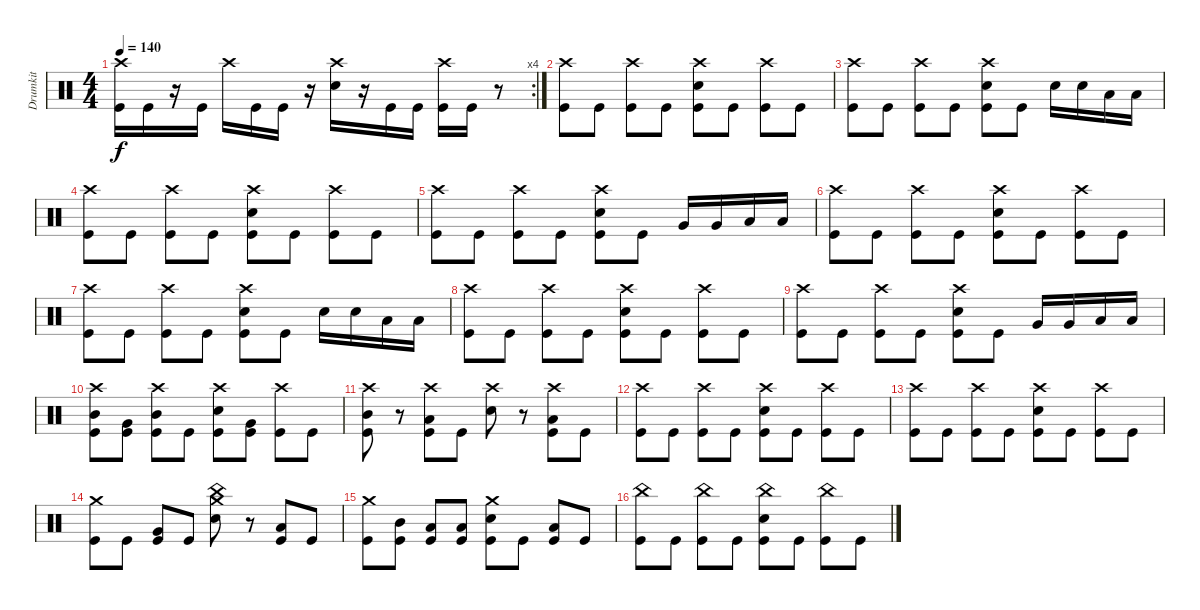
\track ("Drumkit" "Drumkit") {instrument percussion}
\staff {score}
\articulation defaults
\rc 4
\ts (4 4)
\tempo 140
\clef neutral
\ks c
("Crash high (hit)" "Kick (hit)").16{dy f} "Kick (hit)".16 r.16 "Kick (hit)".16 "Crash high (hit)".16 "Kick (hit)".16 "Kick (hit)".16 r.16 ("Crash high (hit)" "Snare (hit) 2").16 r.16 "Kick (hit)".16 "Kick (hit)".16 ("Crash high (hit)" "Kick (hit)").16 "Kick (hit)".16 r.8 |
("Crash high (hit)" "Kick (hit)").8 "Kick (hit)".8 ("Crash high (hit)" "Kick (hit)").8 "Kick (hit)".8 ("Crash high (hit)" "Snare (hit) 2" "Kick (hit)").8 "Kick (hit)".8 ("Crash high (hit)" "Kick (hit)").8 "Kick (hit)".8 |
("Crash high (hit)" "Kick (hit)").8 "Kick (hit)".8 ("Crash high (hit)" "Kick (hit)").8 "Kick (hit)".8 ("Crash high (hit)" "Snare (hit) 2" "Kick (hit)").8 "Kick (hit)".8 "Snare (hit) 2".16 "Snare (hit) 2".16 "Low Floor Tom (hit)".16 "Low Floor Tom (hit)".16 |
("Crash high (hit)" "Kick (hit)").8 "Kick (hit)".8 ("Crash high (hit)" "Kick (hit)").8 "Kick (hit)".8 ("Crash high (hit)" "Snare (hit) 2" "Kick (hit)").8 "Kick (hit)".8 ("Crash high (hit)" "Kick (hit)").8 "Kick (hit)".8 |
("Crash high (hit)" "Kick (hit)").8 "Kick (hit)".8 ("Crash high (hit)" "Kick (hit)").8 "Kick (hit)".8 ("Crash high (hit)" "Snare (hit) 2" "Kick (hit)").8 "Kick (hit)".8 "Very Low Tom (hit)".16 "Very Low Tom (hit)".16 "Low Floor Tom (hit)".16 "Low Floor Tom (hit)".16 |
("Crash high (hit)" "Kick (hit)").8 "Kick (hit)".8 ("Crash high (hit)" "Kick (hit)").8 "Kick (hit)".8 ("Crash high (hit)" "Snare (hit) 2" "Kick (hit)").8 "Kick (hit)".8 ("Crash high (hit)" "Kick (hit)").8 "Kick (hit)".8 |
("Crash high (hit)" "Kick (hit)").8 "Kick (hit)".8 ("Crash high (hit)" "Kick (hit)").8 "Kick (hit)".8 ("Crash high (hit)" "Snare (hit) 2" "Kick (hit)").8 "Kick (hit)".8 "Snare (hit) 2".16 "Snare (hit) 2".16 "Low Floor Tom (hit)".16 "Low Floor Tom (hit)".16 |
("Crash high (hit)" "Kick (hit)").8 "Kick (hit)".8 ("Crash high (hit)" "Kick (hit)").8 "Kick (hit)".8 ("Crash high (hit)" "Snare (hit) 2" "Kick (hit)").8 "Kick (hit)".8 ("Crash high (hit)" "Kick (hit)").8 "Kick (hit)".8 |
("Crash high (hit)" "Kick (hit)").8 "Kick (hit)".8 ("Crash high (hit)" "Kick (hit)").8 "Kick (hit)".8 ("Crash high (hit)" "Snare (hit) 2" "Kick (hit)").8 "Kick (hit)".8 "Very Low Tom (hit)".16 "Very Low Tom (hit)".16 "Low Floor Tom (hit)".16 "Low Floor Tom (hit)".16 |
("Crash high (hit)" "Mid Tom (hit)" "Kick (hit)").8 ("Very Low Tom (hit)" "Kick (hit)").8 ("Crash high (hit)" "Mid Tom (hit)" "Kick (hit)").8 "Kick (hit)".8 ("Crash high (hit)" "Snare (hit) 2" "Kick (hit)").8 ("Very Low Tom (hit)" "Kick (hit)").8 ("Crash high (hit)" "Kick (hit)").8 "Kick (hit)".8 |
("Crash high (hit)" "Mid Tom (hit)" "Kick (hit)").8 r.8 ("Crash high (hit)" "Low Tom (hit)" "Kick (hit)").8 "Kick (hit)".8 ("Crash high (hit)" "Snare (hit) 2").8 r.8 ("Crash high (hit)" "Low Floor Tom (hit)" "Kick (hit)").8 "Kick (hit)".8 |
("Crash high (hit)" "Kick (hit)").8 "Kick (hit)".8 ("Crash high (hit)" "Kick (hit)").8 "Kick (hit)".8 ("Crash high (hit)" "Snare (hit) 2" "Kick (hit)").8 "Kick (hit)".8 ("Crash high (hit)" "Kick (hit)").8 "Kick (hit)".8 |
("Crash high (hit)" "Kick (hit)").8 "Kick (hit)".8 ("Crash high (hit)" "Kick (hit)").8 "Kick (hit)".8 ("Crash high (hit)" "Snare (hit) 2" "Kick (hit)").8 "Kick (hit)".8 ("Crash high (hit)" "Kick (hit)").8 "Kick (hit)".8 |
("Crash medium (hit)" "Kick (hit)").8 "Kick (hit)".8 ("Very Low Tom (hit)" "Kick (hit)").8 "Kick (hit)".8 ("Crash medium (hit)" "China (hit)" "Snare (hit) 2").8 r.8 ("Low Tom (hit)" "Kick (hit)").8 "Kick (hit)".8 |
("Crash medium (hit)" "Kick (hit)").8 ("Mid Tom (hit)" "Kick (hit)").8 ("Low Tom (hit)" "Kick (hit)").8 ("Low Tom (hit)" "Kick (hit)").8 ("Crash medium (hit)" "Snare (hit) 2" "Kick (hit)").8 "Kick (hit)".8 ("Low Floor Tom (hit)" "Kick (hit)").8 "Kick (hit)".8 |
("China (hit)" "Kick (hit)").8 "Kick (hit)".8 ("China (hit)" "Kick (hit)").8 "Kick (hit)".8 ("China (hit)" "Snare (hit) 2" "Kick (hit)").8 "Kick (hit)".8 ("China (hit)" "Kick (hit)").8 "Kick (hit)".8
